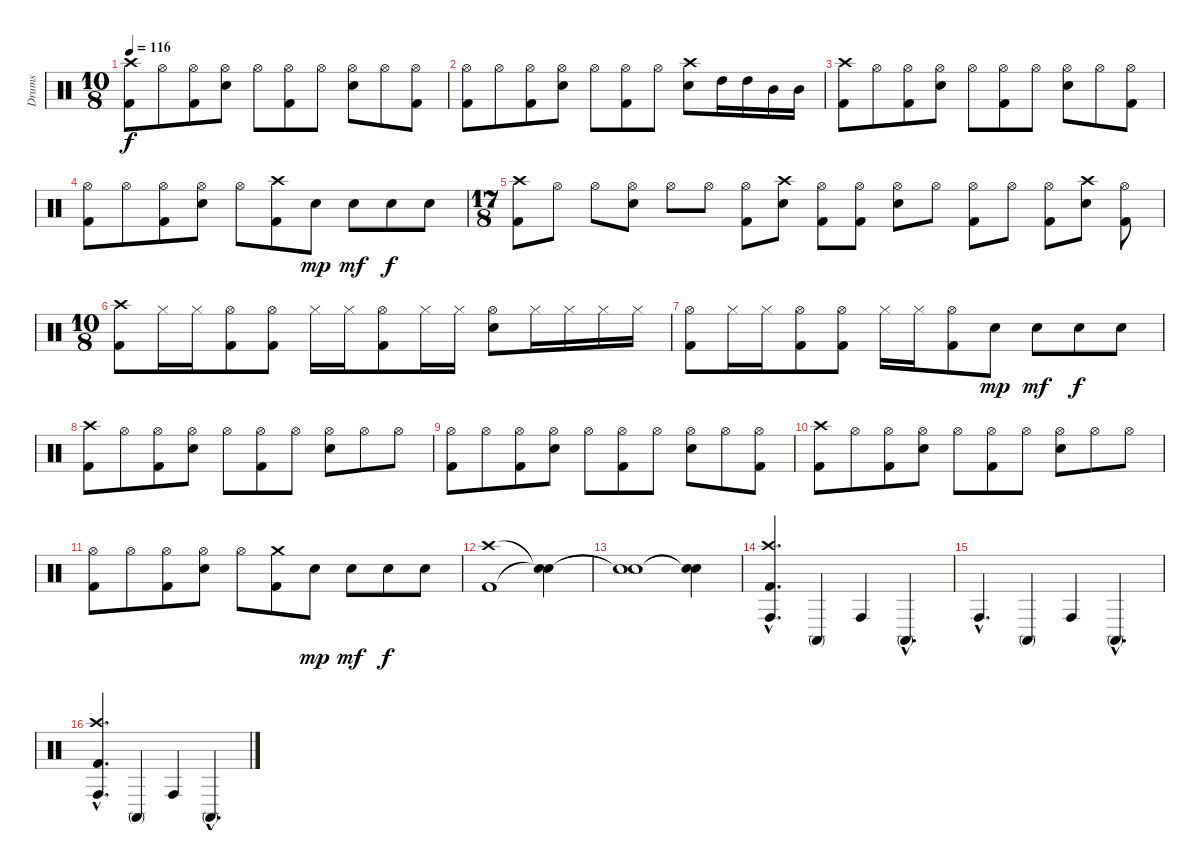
\track ("Drums" "Drums") {instrument percussion}
\staff {score}
\articulation defaults
\ts (10 8)
\tempo 116
\clef neutral
\ks c
("Crash high (hit)" "Kick (hit) 2").8{dy f} "Hi-Hat (open)".8 ("Hi-Hat (open)" "Kick (hit) 2").8 ("Hi-Hat (open)" "Snare (hit) 2").8 "Hi-Hat (open)".8 ("Hi-Hat (open)" "Kick (hit) 2").8 "Hi-Hat (open)".8 ("Hi-Hat (open)" "Snare (hit) 2").8 "Hi-Hat (open)".8 ("Hi-Hat (open)" "Kick (hit) 2").8 |
("Hi-Hat (open)" "Kick (hit) 2").8 "Hi-Hat (open)".8 ("Hi-Hat (open)" "Kick (hit) 2").8 ("Hi-Hat (open)" "Snare (hit) 2").8 "Hi-Hat (open)".8 ("Hi-Hat (open)" "Kick (hit) 2").8 "Hi-Hat (open)".8 ("Crash high (hit)" "Snare (hit) 2").8 "High Tom (hit)".16 "High Tom (hit)".16 "Mid Tom (hit)".16 "Mid Tom (hit)".16 |
("Crash high (hit)" "Kick (hit) 2").8 "Hi-Hat (open)".8 ("Hi-Hat (open)" "Kick (hit) 2").8 ("Hi-Hat (open)" "Snare (hit) 2").8 "Hi-Hat (open)".8 ("Hi-Hat (open)" "Kick (hit) 2").8 "Hi-Hat (open)".8 ("Hi-Hat (open)" "Snare (hit) 2").8 "Hi-Hat (open)".8 ("Hi-Hat (open)" "Kick (hit) 2").8 |
("Hi-Hat (open)" "Kick (hit) 2").8 "Hi-Hat (open)".8 ("Hi-Hat (open)" "Kick (hit) 2").8 ("Hi-Hat (open)" "Snare (hit) 2").8 "Hi-Hat (open)".8 ("Crash high (hit)" "Kick (hit) 2").8 "Snare (hit) 2".8{dy mp} "Snare (hit) 2".8{dy mf} "Snare (hit) 2".8{dy f} "Snare (hit) 2".8 |
\ts (17 8)
("Crash high (hit)" "Kick (hit) 2").8 "Hi-Hat (open)".8 "Hi-Hat (open)".8 ("Hi-Hat (open)" "Snare (hit) 2").8 "Hi-Hat (open)".8 "Hi-Hat (open)".8 ("Hi-Hat (open)" "Kick (hit) 2").8 ("Crash high (hit)" "Snare (hit) 2").8 ("Hi-Hat (open)" "Kick (hit) 2").8 ("Hi-Hat (open)" "Kick (hit) 2").8 ("Hi-Hat (open)" "Snare (hit) 2").8 "Hi-Hat (open)".8 ("Hi-Hat (open)" "Kick (hit) 2").8 "Hi-Hat (open)".8 ("Hi-Hat (open)" "Kick (hit) 2").8 ("Crash high (hit)" "Snare (hit) 2").8 ("Hi-Hat (open)" "Kick (hit) 2").8 |
\ts (10 8)
("Crash high (hit)" "Kick (hit) 2").8 "Hi-Hat (closed)".16 "Hi-Hat (closed)".16 ("Hi-Hat (open)" "Kick (hit) 2").8 ("Hi-Hat (open)" "Kick (hit) 2").8 "Hi-Hat (closed)".16 "Hi-Hat (closed)".16 ("Hi-Hat (open)" "Kick (hit) 2").8 "Hi-Hat (closed)".16 "Hi-Hat (closed)".16 ("Hi-Hat (open)" "Snare (hit) 2").8 "Hi-Hat (closed)".16 "Hi-Hat (closed)".16 "Hi-Hat (closed)".16 "Hi-Hat (closed)".16 |
("Hi-Hat (open)" "Kick (hit) 2").8 "Hi-Hat (closed)".16 "Hi-Hat (closed)".16 ("Hi-Hat (open)" "Kick (hit) 2").8 ("Hi-Hat (open)" "Kick (hit) 2").8 "Hi-Hat (closed)".16 "Hi-Hat (closed)".16 ("Hi-Hat (open)" "Kick (hit) 2").8 "Snare (hit) 2".8{dy mp} "Snare (hit) 2".8{dy mf} "Snare (hit) 2".8{dy f} "Snare (hit) 2".8 |
("Crash high (hit)" "Kick (hit) 2").8 "Hi-Hat (open)".8 ("Hi-Hat (open)" "Kick (hit) 2").8 ("Hi-Hat (open)" "Snare (hit) 2").8 "Hi-Hat (open)".8 ("Hi-Hat (open)" "Kick (hit) 2").8 "Hi-Hat (open)".8 ("Hi-Hat (open)" "Snare (hit) 2").8 "Hi-Hat (open)".8 "Hi-Hat (open)".8 |
("Hi-Hat (open)" "Kick (hit) 2").8 "Hi-Hat (open)".8 ("Hi-Hat (open)" "Kick (hit) 2").8 ("Hi-Hat (open)" "Snare (hit) 2").8 "Hi-Hat (open)".8 ("Hi-Hat (open)" "Kick (hit) 2").8 "Hi-Hat (open)".8 ("Hi-Hat (open)" "Snare (hit) 2").8 "Hi-Hat (open)".8 ("Hi-Hat (open)" "Kick (hit) 2").8 |
("Crash high (hit)" "Kick (hit) 2").8 "Hi-Hat (open)".8 ("Hi-Hat (open)" "Kick (hit) 2").8 ("Hi-Hat (open)" "Snare (hit) 2").8 "Hi-Hat (open)".8 ("Hi-Hat (open)" "Kick (hit) 2").8 "Hi-Hat (open)".8 ("Hi-Hat (open)" "Snare (hit) 2").8 "Hi-Hat (open)".8 "Hi-Hat (open)".8 |
("Hi-Hat (open)" "Kick (hit) 2").8 "Hi-Hat (open)".8 ("Hi-Hat (open)" "Kick (hit) 2").8 ("Hi-Hat (open)" "Snare (hit) 2").8 "Hi-Hat (open)".8 ("Crash medium (hit)" "Kick (hit) 2").8 "Snare (hit) 2".8{dy mp} "Snare (hit) 2".8{dy mf} "Snare (hit) 2".8{dy f} "Snare (hit) 2".8 |
("Crash high (hit)" "Kick (hit) 2").1 ("Snare (hit)"{t} "Snare (hit)"{t}).4 |
("Snare (hit)"{t} "Snare (hit)"{t}).1 ("Snare (hit)"{t} "Snare (hit)"{t}).4 |
("Crash high (hit)"{hac} "Conga high (hit)"{hac} "Kick (hit) 2"{hac}).4{d} "Conga high (mute)".4 "Conga high (hit)".4 "Conga high (mute)"{hac}.4{d} |
"Conga high (hit)"{hac}.4{d} "Conga high (mute)".4 "Conga high (hit)".4 "Conga high (mute)"{hac}.4{d} |
("Crash high (hit)"{hac} "Conga high (hit)"{hac} "Kick (hit) 2"{hac}).4{d} "Conga high (mute)".4 "Conga high (hit)".4 "Conga high (mute)"{hac}.4{d}
